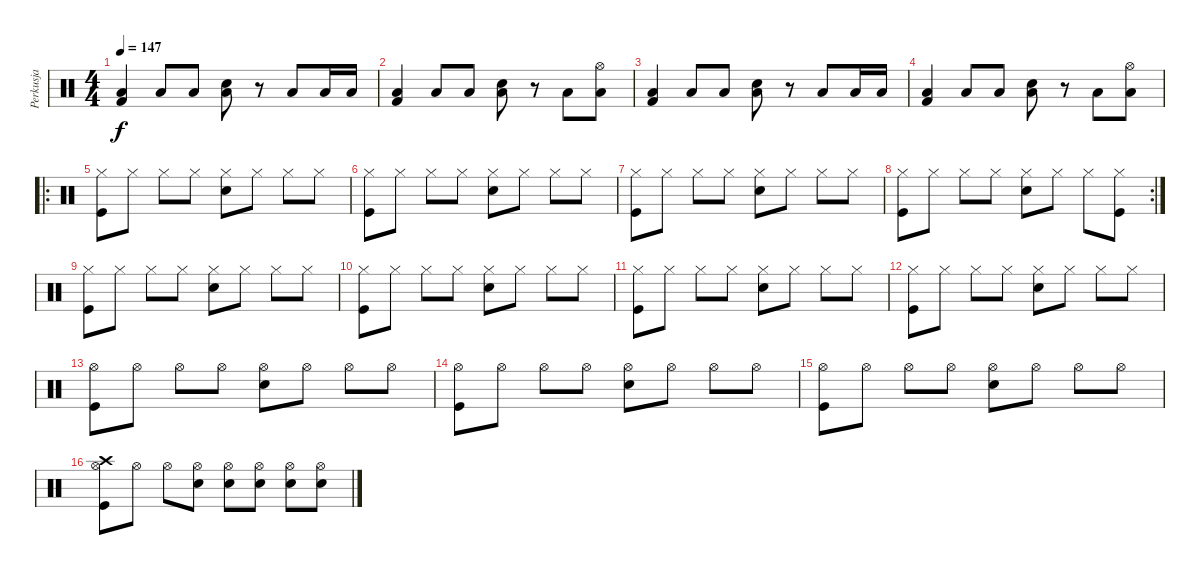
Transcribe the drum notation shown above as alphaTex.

\track ("Perkusja" "Perkusja") {instrument percussion}
\staff {score}
\articulation defaults
\ts (4 4)
\tempo 147
\clef neutral
\ks c
("Low Tom (hit)" "Kick (hit) 2").4{dy f} "Low Tom (hit)".8 "Low Tom (hit)".8 ("Low Tom (hit)" "Snare (hit) 2").8 r.8 "Low Tom (hit)".8 "Low Tom (hit)".16 "Low Tom (hit)".16 |
("Low Tom (hit)" "Kick (hit) 2").4 "Low Tom (hit)".8 "Low Tom (hit)".8 ("Low Tom (hit)" "Snare (hit) 2").8 r.8 "Low Tom (hit)".8 ("Hi-Hat (open)" "Low Tom (hit)").8 |
("Low Tom (hit)" "Kick (hit) 2").4 "Low Tom (hit)".8 "Low Tom (hit)".8 ("Low Tom (hit)" "Snare (hit) 2").8 r.8 "Low Tom (hit)".8 "Low Tom (hit)".16 "Low Tom (hit)".16 |
("Low Tom (hit)" "Kick (hit) 2").4 "Low Tom (hit)".8 "Low Tom (hit)".8 ("Low Tom (hit)" "Snare (hit) 2").8 r.8 "Low Tom (hit)".8 ("Hi-Hat (open)" "Low Tom (hit)").8 |
\ro
("Hi-Hat (closed)" "Kick (hit)").8 "Hi-Hat (closed)".8 "Hi-Hat (closed)".8 "Hi-Hat (closed)".8 ("Hi-Hat (closed)" "Snare (hit) 2").8 "Hi-Hat (closed)".8 "Hi-Hat (closed)".8 "Hi-Hat (closed)".8 |
("Hi-Hat (closed)" "Kick (hit)").8 "Hi-Hat (closed)".8 "Hi-Hat (closed)".8 "Hi-Hat (closed)".8 ("Hi-Hat (closed)" "Snare (hit) 2").8 "Hi-Hat (closed)".8 "Hi-Hat (closed)".8 "Hi-Hat (closed)".8 |
("Hi-Hat (closed)" "Kick (hit)").8 "Hi-Hat (closed)".8 "Hi-Hat (closed)".8 "Hi-Hat (closed)".8 ("Hi-Hat (closed)" "Snare (hit) 2").8 "Hi-Hat (closed)".8 "Hi-Hat (closed)".8 "Hi-Hat (closed)".8 |
\rc 2
("Hi-Hat (closed)" "Kick (hit)").8 "Hi-Hat (closed)".8 "Hi-Hat (closed)".8 "Hi-Hat (closed)".8 ("Hi-Hat (closed)" "Snare (hit) 2").8 "Hi-Hat (closed)".8 "Hi-Hat (closed)".8 ("Hi-Hat (closed)" "Kick (hit)").8 |
("Hi-Hat (closed)" "Kick (hit)").8 "Hi-Hat (closed)".8 "Hi-Hat (closed)".8 "Hi-Hat (closed)".8 ("Hi-Hat (closed)" "Snare (hit) 2").8 "Hi-Hat (closed)".8 "Hi-Hat (closed)".8 "Hi-Hat (closed)".8 |
("Hi-Hat (closed)" "Kick (hit)").8 "Hi-Hat (closed)".8 "Hi-Hat (closed)".8 "Hi-Hat (closed)".8 ("Hi-Hat (closed)" "Snare (hit) 2").8 "Hi-Hat (closed)".8 "Hi-Hat (closed)".8 "Hi-Hat (closed)".8 |
("Hi-Hat (closed)" "Kick (hit)").8 "Hi-Hat (closed)".8 "Hi-Hat (closed)".8 "Hi-Hat (closed)".8 ("Hi-Hat (closed)" "Snare (hit) 2").8 "Hi-Hat (closed)".8 "Hi-Hat (closed)".8 "Hi-Hat (closed)".8 |
("Hi-Hat (closed)" "Kick (hit)").8 "Hi-Hat (closed)".8 "Hi-Hat (closed)".8 "Hi-Hat (closed)".8 ("Hi-Hat (closed)" "Snare (hit) 2").8 "Hi-Hat (closed)".8 "Hi-Hat (closed)".8 "Hi-Hat (closed)".8 |
("Hi-Hat (open)" "Kick (hit)").8 "Hi-Hat (open)".8 "Hi-Hat (open)".8 "Hi-Hat (open)".8 ("Hi-Hat (open)" "Snare (hit) 2").8 "Hi-Hat (open)".8 "Hi-Hat (open)".8 "Hi-Hat (open)".8 |
("Hi-Hat (open)" "Kick (hit)").8 "Hi-Hat (open)".8 "Hi-Hat (open)".8 "Hi-Hat (open)".8 ("Hi-Hat (open)" "Snare (hit) 2").8 "Hi-Hat (open)".8 "Hi-Hat (open)".8 "Hi-Hat (open)".8 |
("Hi-Hat (open)" "Kick (hit)").8 "Hi-Hat (open)".8 "Hi-Hat (open)".8 "Hi-Hat (open)".8 ("Hi-Hat (open)" "Snare (hit) 2").8 "Hi-Hat (open)".8 "Hi-Hat (open)".8 "Hi-Hat (open)".8 |
("Crash high (hit)" "Hi-Hat (open)" "Kick (hit)").8 "Hi-Hat (open)".8 "Hi-Hat (open)".8 ("Hi-Hat (open)" "Snare (hit) 2").8 ("Hi-Hat (open)" "Snare (hit) 2").8 ("Hi-Hat (open)" "Snare (hit) 2").8 ("Hi-Hat (open)" "Snare (hit) 2").8 ("Hi-Hat (open)" "Snare (hit) 2").8
